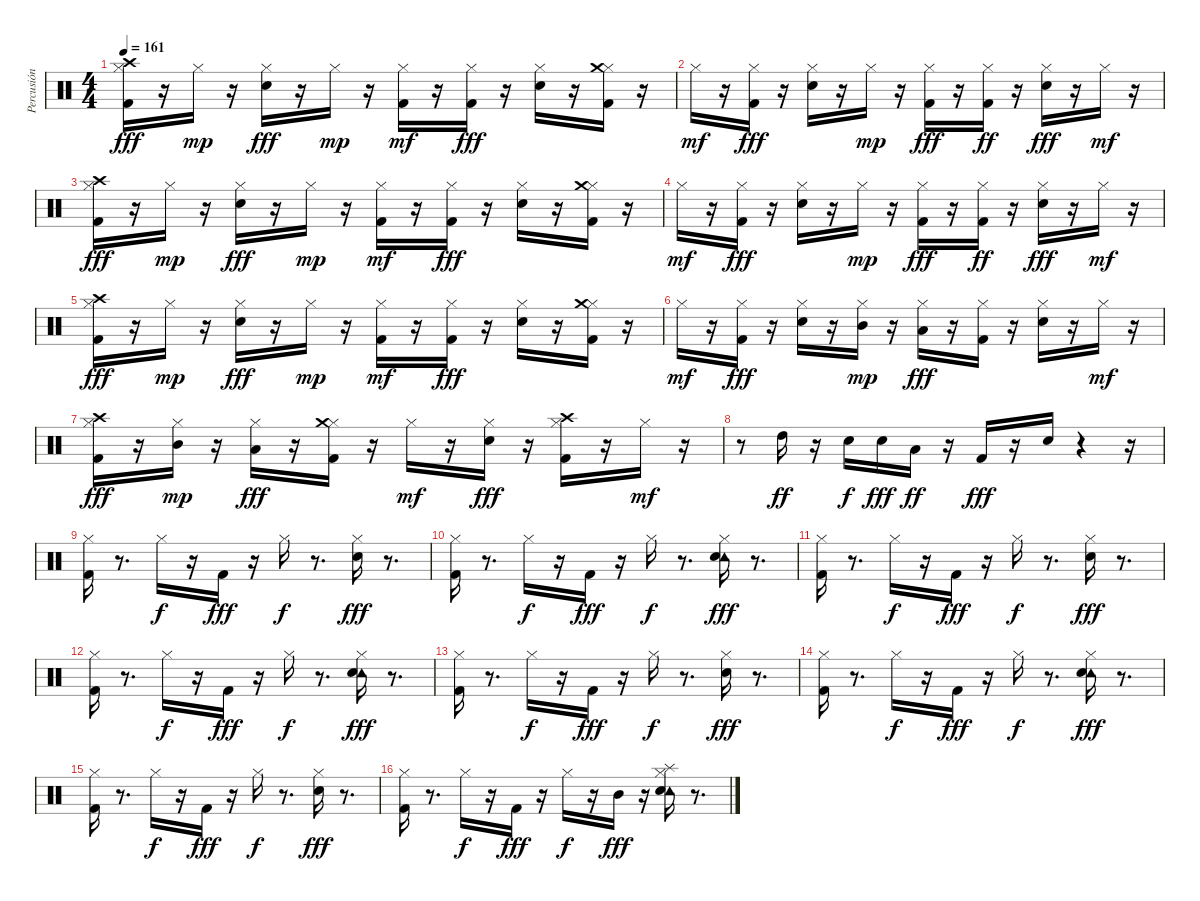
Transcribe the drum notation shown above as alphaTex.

\track ("Percusión" "Percusión") {instrument percussion}
\staff {score}
\articulation defaults
\ts (4 4)
\tempo 161
\clef neutral
\ks c
("Hi-Hat (closed)" "Crash high (hit)" "Kick (hit) 2").16{dy fff} r.16 "Hi-Hat (closed)".16{dy mp} r.16 ("Hi-Hat (closed)" "Snare (hit) 2").16{dy fff} r.16 "Hi-Hat (closed)".16{dy mp} r.16 ("Hi-Hat (closed)" "Kick (hit) 2").16{dy mf} r.16 ("Hi-Hat (closed)" "Kick (hit) 2").16{dy fff} r.16 ("Hi-Hat (closed)" "Snare (hit) 2").16 r.16 ("Hi-Hat (closed)" "Crash medium (hit)" "Kick (hit) 2").16 r.16 |
"Hi-Hat (closed)".16{dy mf} r.16 ("Hi-Hat (closed)" "Kick (hit) 2").16{dy fff} r.16 ("Hi-Hat (closed)" "Snare (hit) 2").16 r.16 "Hi-Hat (closed)".16{dy mp} r.16 ("Hi-Hat (closed)" "Kick (hit) 2").16{dy fff} r.16 ("Hi-Hat (closed)" "Kick (hit) 2").16{dy ff} r.16 ("Hi-Hat (closed)" "Snare (hit) 2").16{dy fff} r.16 "Hi-Hat (closed)".16{dy mf} r.16 |
("Hi-Hat (closed)" "Crash high (hit)" "Kick (hit) 2").16{dy fff} r.16 "Hi-Hat (closed)".16{dy mp} r.16 ("Hi-Hat (closed)" "Snare (hit) 2").16{dy fff} r.16 "Hi-Hat (closed)".16{dy mp} r.16 ("Hi-Hat (closed)" "Kick (hit) 2").16{dy mf} r.16 ("Hi-Hat (closed)" "Kick (hit) 2").16{dy fff} r.16 ("Hi-Hat (closed)" "Snare (hit) 2").16 r.16 ("Hi-Hat (closed)" "Crash medium (hit)" "Kick (hit) 2").16 r.16 |
"Hi-Hat (closed)".16{dy mf} r.16 ("Hi-Hat (closed)" "Kick (hit) 2").16{dy fff} r.16 ("Hi-Hat (closed)" "Snare (hit) 2").16 r.16 "Hi-Hat (closed)".16{dy mp} r.16 ("Hi-Hat (closed)" "Kick (hit) 2").16{dy fff} r.16 ("Hi-Hat (closed)" "Kick (hit) 2").16{dy ff} r.16 ("Hi-Hat (closed)" "Snare (hit) 2").16{dy fff} r.16 "Hi-Hat (closed)".16{dy mf} r.16 |
("Hi-Hat (closed)" "Crash high (hit)" "Kick (hit) 2").16{dy fff} r.16 "Hi-Hat (closed)".16{dy mp} r.16 ("Hi-Hat (closed)" "Snare (hit) 2").16{dy fff} r.16 "Hi-Hat (closed)".16{dy mp} r.16 ("Hi-Hat (closed)" "Kick (hit) 2").16{dy mf} r.16 ("Hi-Hat (closed)" "Kick (hit) 2").16{dy fff} r.16 ("Hi-Hat (closed)" "Snare (hit) 2").16 r.16 ("Hi-Hat (closed)" "Crash medium (hit)" "Kick (hit) 2").16 r.16 |
"Hi-Hat (closed)".16{dy mf} r.16 ("Hi-Hat (closed)" "Kick (hit) 2").16{dy fff} r.16 ("Hi-Hat (closed)" "Snare (hit) 2").16 r.16 ("Mid Tom (hit)" "Hi-Hat (closed)").16{dy mp} r.16 ("Hi-Hat (closed)" "Low Tom (hit)").16{dy fff} r.16 ("Hi-Hat (closed)" "Kick (hit) 2").16 r.16 ("Hi-Hat (closed)" "Snare (hit) 2").16 r.16 "Hi-Hat (closed)".16{dy mf} r.16 |
("Hi-Hat (closed)" "Crash high (hit)" "Kick (hit) 2").16{dy fff} r.16 ("Mid Tom (hit)" "Hi-Hat (closed)").16{dy mp} r.16 ("Hi-Hat (closed)" "Low Tom (hit)").16{dy fff} r.16 ("Hi-Hat (closed)" "Crash medium (hit)" "Kick (hit) 2").16 r.16 "Hi-Hat (closed)".16{dy mf} r.16 ("Hi-Hat (closed)" "Snare (hit) 2").16{dy fff} r.16 ("Hi-Hat (closed)" "Crash high (hit)" "Kick (hit) 2").16 r.16 "Hi-Hat (closed)".16{dy mf} r.16 |
r.8 "High Tom (hit)".16{dy ff} r.16 "Snare (hit) 2".16{dy f} "Snare (hit) 2".16{dy fff} "Low Tom (hit)".16{dy ff} r.16 "Kick (hit) 2".16{dy fff} r.16 "Snare (hit) 2".16 r.4 r.16 |
("Hi-Hat (closed)" "Kick (hit) 2").16 r.8{d} "Hi-Hat (closed)".16{dy f} r.16 "Kick (hit) 2".16{dy fff} r.16 "Hi-Hat (closed)".16{dy f} r.8{d} ("Hi-Hat (closed)" "Snare (hit) 2").16{dy fff} r.8{d} |
("Hi-Hat (closed)" "Kick (hit) 2").16 r.8{d} "Hi-Hat (closed)".16{dy f} r.16 "Kick (hit) 2".16{dy fff} r.16 "Hi-Hat (closed)".16{dy f} r.8{d} ("Hi-Hat (closed)" "Tambourine (hit)" "Snare (hit) 2").16{dy fff} r.8{d} |
("Hi-Hat (closed)" "Kick (hit) 2").16 r.8{d} "Hi-Hat (closed)".16{dy f} r.16 "Kick (hit) 2".16{dy fff} r.16 "Hi-Hat (closed)".16{dy f} r.8{d} ("Hi-Hat (closed)" "Snare (hit) 2").16{dy fff} r.8{d} |
("Hi-Hat (closed)" "Kick (hit) 2").16 r.8{d} "Hi-Hat (closed)".16{dy f} r.16 "Kick (hit) 2".16{dy fff} r.16 "Hi-Hat (closed)".16{dy f} r.8{d} ("Hi-Hat (closed)" "Tambourine (hit)" "Snare (hit) 2").16{dy fff} r.8{d} |
("Hi-Hat (closed)" "Kick (hit) 2").16 r.8{d} "Hi-Hat (closed)".16{dy f} r.16 "Kick (hit) 2".16{dy fff} r.16 "Hi-Hat (closed)".16{dy f} r.8{d} ("Hi-Hat (closed)" "Snare (hit) 2").16{dy fff} r.8{d} |
("Hi-Hat (closed)" "Kick (hit) 2").16 r.8{d} "Hi-Hat (closed)".16{dy f} r.16 "Kick (hit) 2".16{dy fff} r.16 "Hi-Hat (closed)".16{dy f} r.8{d} ("Hi-Hat (closed)" "Tambourine (hit)" "Snare (hit) 2").16{dy fff} r.8{d} |
("Hi-Hat (closed)" "Kick (hit) 2").16 r.8{d} "Hi-Hat (closed)".16{dy f} r.16 "Kick (hit) 2".16{dy fff} r.16 "Hi-Hat (closed)".16{dy f} r.8{d} ("Hi-Hat (closed)" "Snare (hit) 2").16{dy fff} r.8{d} |
("Hi-Hat (closed)" "Kick (hit) 2").16 r.8{d} "Hi-Hat (closed)".16{dy f} r.16 "Kick (hit) 2".16{dy fff} r.16 "Hi-Hat (closed)".16{dy f} r.16 "Mid Tom (hit)".16{dy fff} r.16 ("Hi-Hat (closed)" "Splash (hit)" "Tambourine (hit)" "Snare (hit) 2").16 r.8{d}
